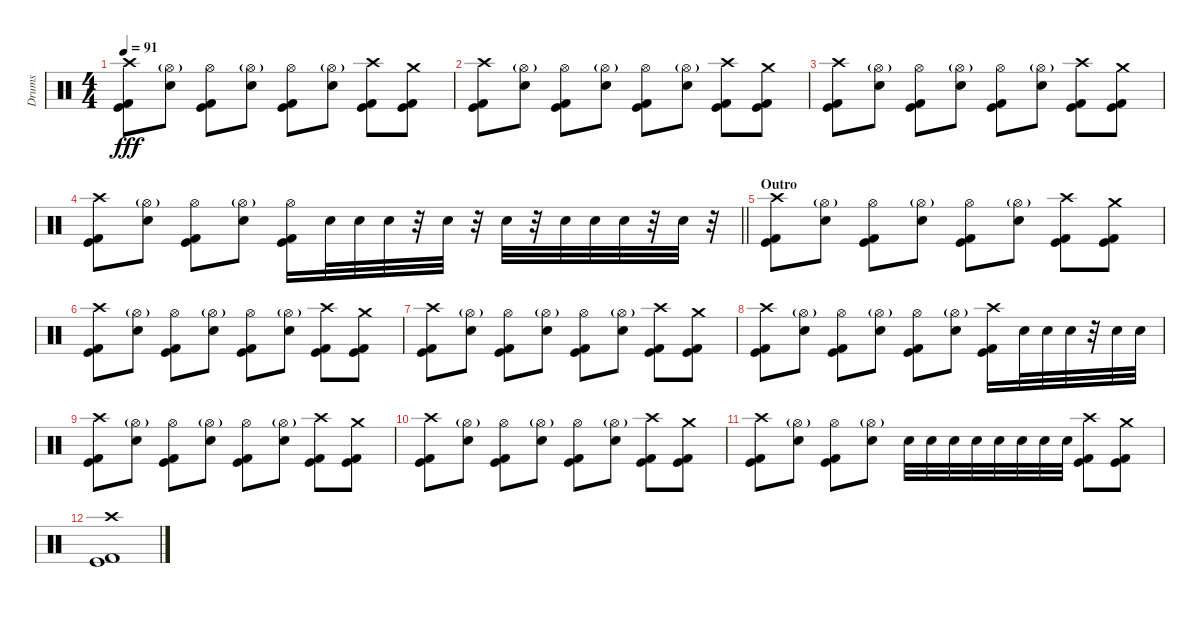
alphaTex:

\track ("Drums" "Drums") {instrument percussion}
\staff {score}
\articulation defaults
\ts (4 4)
\tempo 91
\clef neutral
\ks c
("Crash high (hit)" "Kick (hit)" "Kick (hit) 2").8{dy fff} ("Hi-Hat (open)"{g} "Electric Snare (hit)").8 ("Hi-Hat (open)" "Kick (hit)" "Kick (hit) 2").8 ("Hi-Hat (open)"{g} "Electric Snare (hit)").8 ("Hi-Hat (open)" "Kick (hit)" "Kick (hit) 2").8 ("Hi-Hat (open)"{g} "Electric Snare (hit)").8 ("Crash high (hit)" "Kick (hit)" "Kick (hit) 2").8 ("Crash medium (hit)" "Kick (hit)" "Kick (hit) 2").8 |
("Crash high (hit)" "Kick (hit)" "Kick (hit) 2").8 ("Hi-Hat (open)"{g} "Electric Snare (hit)").8 ("Hi-Hat (open)" "Kick (hit)" "Kick (hit) 2").8 ("Hi-Hat (open)"{g} "Electric Snare (hit)").8 ("Hi-Hat (open)" "Kick (hit)" "Kick (hit) 2").8 ("Hi-Hat (open)"{g} "Electric Snare (hit)").8 ("Crash high (hit)" "Kick (hit)" "Kick (hit) 2").8 ("Crash medium (hit)" "Kick (hit)" "Kick (hit) 2").8 |
("Crash high (hit)" "Kick (hit)" "Kick (hit) 2").8 ("Hi-Hat (open)"{g} "Electric Snare (hit)").8 ("Hi-Hat (open)" "Kick (hit)" "Kick (hit) 2").8 ("Hi-Hat (open)"{g} "Electric Snare (hit)").8 ("Hi-Hat (open)" "Kick (hit)" "Kick (hit) 2").8 ("Hi-Hat (open)"{g} "Electric Snare (hit)").8 ("Crash high (hit)" "Kick (hit)" "Kick (hit) 2").8 ("Crash medium (hit)" "Kick (hit)" "Kick (hit) 2").8 |
\barLineRight lightlight
("Crash high (hit)" "Kick (hit)" "Kick (hit) 2").8 ("Hi-Hat (open)"{g} "Electric Snare (hit)").8 ("Hi-Hat (open)" "Kick (hit)" "Kick (hit) 2").8 ("Hi-Hat (open)"{g} "Electric Snare (hit)").8 ("Hi-Hat (open)" "Kick (hit)" "Kick (hit) 2").16 "Electric Snare (hit)".32 "Electric Snare (hit)".32 "Electric Snare (hit)".32 r.32 "Electric Snare (hit)".32 r.32 "Electric Snare (hit)".32 r.32 "Electric Snare (hit)".32 "Electric Snare (hit)".32 "Electric Snare (hit)".32 r.32 "Electric Snare (hit)".32 r.32 |
\section ("" "Outro")
("Crash high (hit)" "Kick (hit)" "Kick (hit) 2").8 ("Hi-Hat (open)"{g} "Electric Snare (hit)").8 ("Hi-Hat (open)" "Kick (hit)" "Kick (hit) 2").8 ("Hi-Hat (open)"{g} "Electric Snare (hit)").8 ("Hi-Hat (open)" "Kick (hit)" "Kick (hit) 2").8 ("Hi-Hat (open)"{g} "Electric Snare (hit)").8 ("Crash high (hit)" "Kick (hit)" "Kick (hit) 2").8 ("Crash medium (hit)" "Kick (hit)" "Kick (hit) 2").8 |
("Crash high (hit)" "Kick (hit)" "Kick (hit) 2").8 ("Hi-Hat (open)"{g} "Electric Snare (hit)").8 ("Hi-Hat (open)" "Kick (hit)" "Kick (hit) 2").8 ("Hi-Hat (open)"{g} "Electric Snare (hit)").8 ("Hi-Hat (open)" "Kick (hit)" "Kick (hit) 2").8 ("Hi-Hat (open)"{g} "Electric Snare (hit)").8 ("Crash high (hit)" "Kick (hit)" "Kick (hit) 2").8 ("Crash medium (hit)" "Kick (hit)" "Kick (hit) 2").8 |
("Crash high (hit)" "Kick (hit)" "Kick (hit) 2").8 ("Hi-Hat (open)"{g} "Electric Snare (hit)").8 ("Hi-Hat (open)" "Kick (hit)" "Kick (hit) 2").8 ("Hi-Hat (open)"{g} "Electric Snare (hit)").8 ("Hi-Hat (open)" "Kick (hit)" "Kick (hit) 2").8 ("Hi-Hat (open)"{g} "Electric Snare (hit)").8 ("Crash high (hit)" "Kick (hit)" "Kick (hit) 2").8 ("Crash medium (hit)" "Kick (hit)" "Kick (hit) 2").8 |
("Crash high (hit)" "Kick (hit)" "Kick (hit) 2").8 ("Hi-Hat (open)"{g} "Electric Snare (hit)").8 ("Hi-Hat (open)" "Kick (hit)" "Kick (hit) 2").8 ("Hi-Hat (open)"{g} "Electric Snare (hit)").8 ("Hi-Hat (open)" "Kick (hit)" "Kick (hit) 2").8 ("Hi-Hat (open)"{g} "Electric Snare (hit)").8 ("Crash high (hit)" "Kick (hit)" "Kick (hit) 2").16 "Electric Snare (hit)".32 "Electric Snare (hit)".32 "Electric Snare (hit)".32 r.32 "Electric Snare (hit)".32 "Electric Snare (hit)".32 |
("Crash high (hit)" "Kick (hit)" "Kick (hit) 2").8 ("Hi-Hat (open)"{g} "Electric Snare (hit)").8 ("Hi-Hat (open)" "Kick (hit)" "Kick (hit) 2").8 ("Hi-Hat (open)"{g} "Electric Snare (hit)").8 ("Hi-Hat (open)" "Kick (hit)" "Kick (hit) 2").8 ("Hi-Hat (open)"{g} "Electric Snare (hit)").8 ("Crash high (hit)" "Kick (hit)" "Kick (hit) 2").8 ("Crash medium (hit)" "Kick (hit)" "Kick (hit) 2").8 |
("Crash high (hit)" "Kick (hit)" "Kick (hit) 2").8 ("Hi-Hat (open)"{g} "Electric Snare (hit)").8 ("Hi-Hat (open)" "Kick (hit)" "Kick (hit) 2").8 ("Hi-Hat (open)"{g} "Electric Snare (hit)").8 ("Hi-Hat (open)" "Kick (hit)" "Kick (hit) 2").8 ("Hi-Hat (open)"{g} "Electric Snare (hit)").8 ("Crash high (hit)" "Kick (hit)" "Kick (hit) 2").8 ("Crash medium (hit)" "Kick (hit)" "Kick (hit) 2").8 |
("Crash high (hit)" "Kick (hit)" "Kick (hit) 2").8 ("Hi-Hat (open)"{g} "Electric Snare (hit)").8 ("Hi-Hat (open)" "Kick (hit)" "Kick (hit) 2").8 ("Hi-Hat (open)"{g} "Electric Snare (hit)").8 "Electric Snare (hit)".32 "Electric Snare (hit)".32 "Electric Snare (hit)".32 "Electric Snare (hit)".32 "Electric Snare (hit)".32 "Electric Snare (hit)".32 "Electric Snare (hit)".32 "Electric Snare (hit)".32 ("Crash high (hit)" "Kick (hit)" "Kick (hit) 2").8 ("Crash medium (hit)" "Kick (hit)" "Kick (hit) 2").8 |
("Crash high (hit)" "Kick (hit)" "Kick (hit) 2").1
